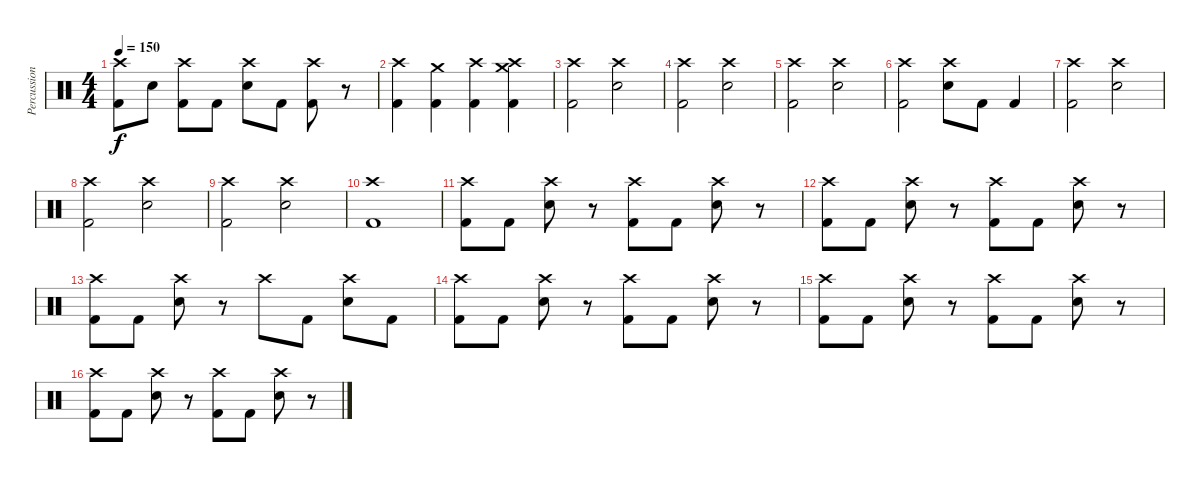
\track ("Percussion" "Percussion") {instrument percussion}
\staff {score}
\articulation defaults
\ts (4 4)
\tempo 150
\clef neutral
\ks c
("Crash high (hit)" "Kick (hit) 2").8{dy f} "Electric Snare (hit)".8 ("Crash high (hit)" "Kick (hit) 2").8 "Kick (hit) 2".8 ("Crash high (hit)" "Electric Snare (hit)").8 "Kick (hit) 2".8 ("Crash high (hit)" "Kick (hit) 2").8 r.8 |
("Crash high (hit)" "Kick (hit) 2").4 ("Crash medium (hit)" "Kick (hit) 2").4 ("Crash high (hit)" "Kick (hit) 2").4 ("Crash medium (hit)" "Crash high (hit)" "Kick (hit) 2").4 |
("Crash high (hit)" "Kick (hit) 2").2 ("Crash high (hit)" "Electric Snare (hit)").2 |
("Crash high (hit)" "Kick (hit) 2").2 ("Crash high (hit)" "Electric Snare (hit)").2 |
("Crash high (hit)" "Kick (hit) 2").2 ("Crash high (hit)" "Electric Snare (hit)").2 |
("Crash high (hit)" "Kick (hit) 2").2 ("Crash high (hit)" "Electric Snare (hit)").8 "Kick (hit) 2".8 "Kick (hit) 2".4 |
("Crash high (hit)" "Kick (hit) 2").2 ("Crash high (hit)" "Electric Snare (hit)").2 |
("Crash high (hit)" "Kick (hit) 2").2 ("Crash high (hit)" "Electric Snare (hit)").2 |
("Crash high (hit)" "Kick (hit) 2").2 ("Crash high (hit)" "Electric Snare (hit)").2 |
("Crash high (hit)" "Kick (hit) 2").1 |
("Crash high (hit)" "Kick (hit) 2").8 "Kick (hit) 2".8 ("Crash high (hit)" "Electric Snare (hit)").8 r.8 ("Crash high (hit)" "Kick (hit) 2").8 "Kick (hit) 2".8 ("Crash high (hit)" "Electric Snare (hit)").8 r.8 |
("Crash high (hit)" "Kick (hit) 2").8 "Kick (hit) 2".8 ("Crash high (hit)" "Electric Snare (hit)").8 r.8 ("Crash high (hit)" "Kick (hit) 2").8 "Kick (hit) 2".8 ("Crash high (hit)" "Electric Snare (hit)").8 r.8 |
("Crash high (hit)" "Kick (hit) 2").8 "Kick (hit) 2".8 ("Crash high (hit)" "Electric Snare (hit)").8 r.8 "Crash high (hit)".8 "Kick (hit) 2".8 ("Crash high (hit)" "Electric Snare (hit)").8 "Kick (hit) 2".8 |
("Crash high (hit)" "Kick (hit) 2").8 "Kick (hit) 2".8 ("Crash high (hit)" "Electric Snare (hit)").8 r.8 ("Crash high (hit)" "Kick (hit) 2").8 "Kick (hit) 2".8 ("Crash high (hit)" "Electric Snare (hit)").8 r.8 |
("Crash high (hit)" "Kick (hit) 2").8 "Kick (hit) 2".8 ("Crash high (hit)" "Electric Snare (hit)").8 r.8 ("Crash high (hit)" "Kick (hit) 2").8 "Kick (hit) 2".8 ("Crash high (hit)" "Electric Snare (hit)").8 r.8 |
("Crash high (hit)" "Kick (hit) 2").8 "Kick (hit) 2".8 ("Crash high (hit)" "Electric Snare (hit)").8 r.8 ("Crash high (hit)" "Kick (hit) 2").8 "Kick (hit) 2".8 ("Crash high (hit)" "Electric Snare (hit)").8 r.8
